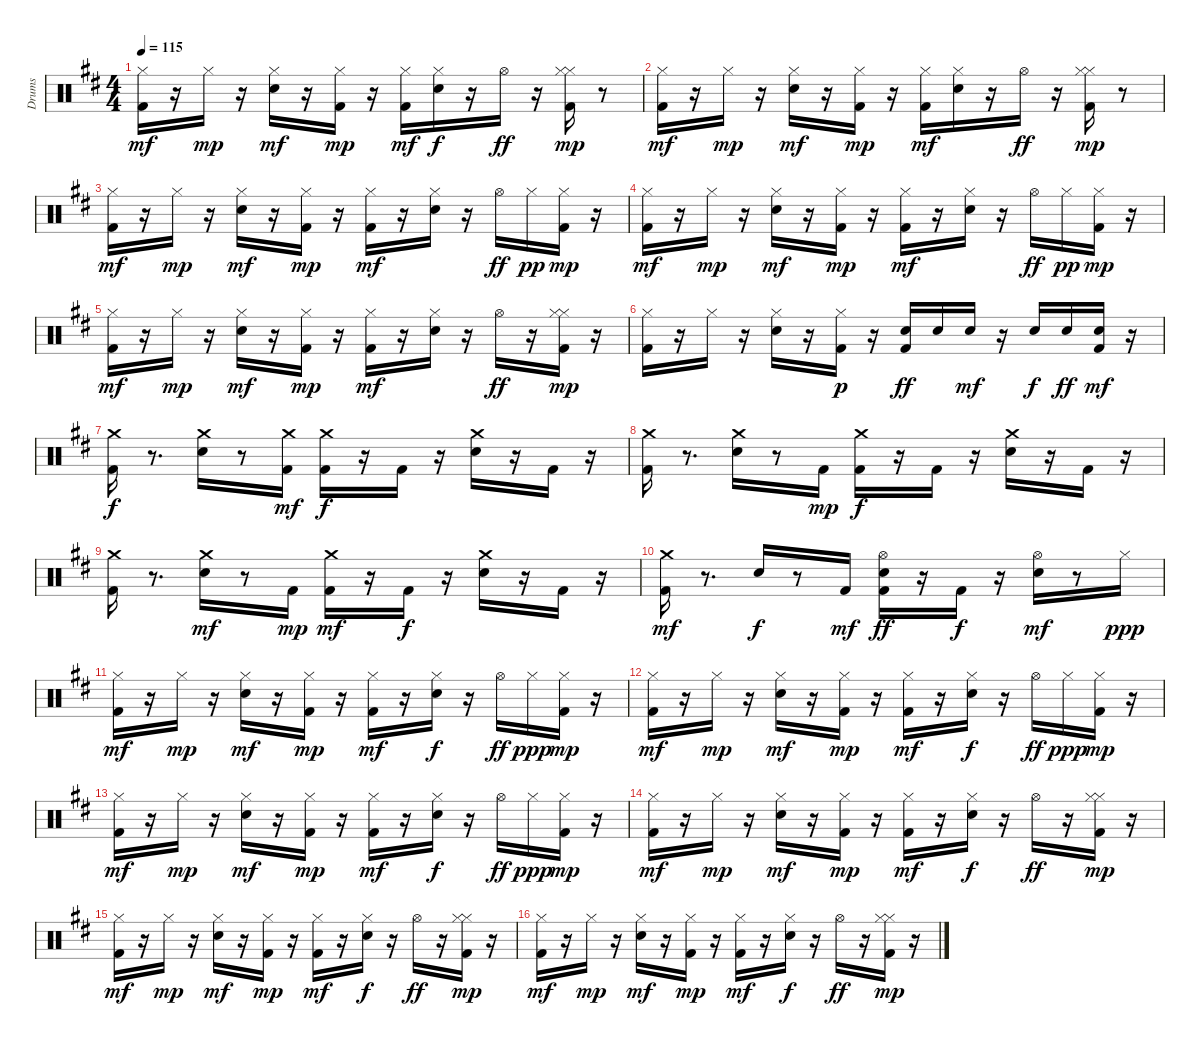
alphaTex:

\track ("Drums" "Drums") {instrument percussion}
\staff {score}
\articulation defaults
\ts (4 4)
\tempo 115
\clef neutral
\ks d
("Kick (hit) 2" "Hi-Hat (closed)").16{dy mf} r.16 "Hi-Hat (closed)".16{dy mp} r.16 ("Hi-Hat (closed)" "Snare (hit) 2").16{dy mf} r.16 ("Kick (hit) 2" "Hi-Hat (closed)").16{dy mp} r.16 ("Kick (hit) 2" "Hi-Hat (closed)").16{dy mf} ("Hi-Hat (closed)" "Snare (hit) 2").16{dy f} r.16 "Hi-Hat (open)".16{dy ff} r.16 ("Hi-Hat (closed)" "Kick (hit) 2" "Hi-Hat (closed)").16{dy mp} r.8 |
("Kick (hit) 2" "Hi-Hat (closed)").16{dy mf} r.16 "Hi-Hat (closed)".16{dy mp} r.16 ("Hi-Hat (closed)" "Snare (hit) 2").16{dy mf} r.16 ("Kick (hit) 2" "Hi-Hat (closed)").16{dy mp} r.16 ("Kick (hit) 2" "Hi-Hat (closed)").16{dy mf} ("Hi-Hat (closed)" "Snare (hit) 2").16 r.16 "Hi-Hat (open)".16{dy ff} r.16 ("Hi-Hat (closed)" "Kick (hit) 2" "Hi-Hat (closed)").16{dy mp} r.8 |
("Kick (hit) 2" "Hi-Hat (closed)").16{dy mf} r.16 "Hi-Hat (closed)".16{dy mp} r.16 ("Hi-Hat (closed)" "Snare (hit) 2").16{dy mf} r.16 ("Kick (hit) 2" "Hi-Hat (closed)").16{dy mp} r.16 ("Kick (hit) 2" "Hi-Hat (closed)").16{dy mf} r.16 ("Hi-Hat (closed)" "Snare (hit) 2").16 r.16 "Hi-Hat (open)".16{dy ff} "Hi-Hat (closed)".16{dy pp} ("Kick (hit) 2" "Hi-Hat (closed)").16{dy mp} r.16 |
("Kick (hit) 2" "Hi-Hat (closed)").16{dy mf} r.16 "Hi-Hat (closed)".16{dy mp} r.16 ("Hi-Hat (closed)" "Snare (hit) 2").16{dy mf} r.16 ("Kick (hit) 2" "Hi-Hat (closed)").16{dy mp} r.16 ("Kick (hit) 2" "Hi-Hat (closed)").16{dy mf} r.16 ("Hi-Hat (closed)" "Snare (hit) 2").16 r.16 "Hi-Hat (open)".16{dy ff} "Hi-Hat (closed)".16{dy pp} ("Kick (hit) 2" "Hi-Hat (closed)").16{dy mp} r.16 |
("Kick (hit) 2" "Hi-Hat (closed)").16{dy mf} r.16 "Hi-Hat (closed)".16{dy mp} r.16 ("Hi-Hat (closed)" "Snare (hit) 2").16{dy mf} r.16 ("Kick (hit) 2" "Hi-Hat (closed)").16{dy mp} r.16 ("Kick (hit) 2" "Hi-Hat (closed)").16{dy mf} r.16 ("Hi-Hat (closed)" "Snare (hit) 2").16 r.16 "Hi-Hat (open)".16{dy ff} r.16 ("Hi-Hat (closed)" "Kick (hit) 2" "Hi-Hat (closed)").16{dy mp} r.16 |
("Kick (hit) 2" "Hi-Hat (closed)").16 r.16 "Hi-Hat (closed)".16 r.16 ("Hi-Hat (closed)" "Snare (hit) 2").16 r.16 ("Kick (hit) 2" "Hi-Hat (closed)").16{dy p} r.16 ("Kick (hit) 2" "Snare (hit) 2").16{dy ff} "Snare (hit) 2".16 "Snare (hit) 2".16{dy mf} r.16 "Snare (hit) 2".16{dy f} "Snare (hit) 2".16{dy ff} ("Kick (hit) 2" "Snare (hit) 2").16{dy mf} r.16 |
("Kick (hit) 2" "Crash medium (hit)").16{dy f} r.8{d} ("Crash medium (hit)" "Snare (hit) 2").16 r.8 ("Kick (hit) 2" "Crash medium (hit)").16{dy mf} ("Kick (hit) 2" "Crash medium (hit)").16{dy f} r.16 "Kick (hit) 2".16 r.16 ("Crash medium (hit)" "Snare (hit) 2").16 r.16 "Kick (hit) 2".16 r.16 |
("Kick (hit) 2" "Crash medium (hit)").16 r.8{d} ("Crash medium (hit)" "Snare (hit) 2").16 r.8 "Kick (hit) 2".16{dy mp} ("Kick (hit) 2" "Crash medium (hit)").16{dy f} r.16 "Kick (hit) 2".16 r.16 ("Crash medium (hit)" "Snare (hit) 2").16 r.16 "Kick (hit) 2".16 r.16 |
("Kick (hit) 2" "Crash medium (hit)").16 r.8{d} ("Crash medium (hit)" "Snare (hit) 2").16{dy mf} r.8 "Kick (hit) 2".16{dy mp} ("Kick (hit) 2" "Crash medium (hit)").16{dy mf} r.16 "Kick (hit) 2".16{dy f} r.16 ("Crash medium (hit)" "Snare (hit) 2").16 r.16 "Kick (hit) 2".16 r.16 |
("Kick (hit) 2" "Crash medium (hit)").16{dy mf} r.8{d} "Snare (hit) 2".16{dy f} r.8 "Kick (hit) 2".16{dy mf} ("Kick (hit) 2" "Snare (hit) 2" "Hi-Hat (open)").16{dy ff} r.16 "Kick (hit) 2".16{dy f} r.16 ("Snare (hit) 2" "Hi-Hat (open)").16{dy mf} r.8 "Hi-Hat (closed)".16{dy ppp} |
("Kick (hit) 2" "Hi-Hat (closed)").16{dy mf} r.16 "Hi-Hat (closed)".16{dy mp} r.16 ("Hi-Hat (closed)" "Snare (hit) 2").16{dy mf} r.16 ("Kick (hit) 2" "Hi-Hat (closed)").16{dy mp} r.16 ("Kick (hit) 2" "Hi-Hat (closed)").16{dy mf} r.16 ("Snare (hit) 2" "Hi-Hat (closed)").16{dy f} r.16 "Hi-Hat (open)".16{dy ff} "Hi-Hat (closed)".16{dy ppp} ("Kick (hit) 2" "Hi-Hat (closed)").16{dy mp} r.16 |
("Kick (hit) 2" "Hi-Hat (closed)").16{dy mf} r.16 "Hi-Hat (closed)".16{dy mp} r.16 ("Hi-Hat (closed)" "Snare (hit) 2").16{dy mf} r.16 ("Kick (hit) 2" "Hi-Hat (closed)").16{dy mp} r.16 ("Kick (hit) 2" "Hi-Hat (closed)").16{dy mf} r.16 ("Hi-Hat (closed)" "Snare (hit) 2").16{dy f} r.16 "Hi-Hat (open)".16{dy ff} "Hi-Hat (closed)".16{dy ppp} ("Kick (hit) 2" "Hi-Hat (closed)").16{dy mp} r.16 |
("Kick (hit) 2" "Hi-Hat (closed)").16{dy mf} r.16 "Hi-Hat (closed)".16{dy mp} r.16 ("Hi-Hat (closed)" "Snare (hit) 2").16{dy mf} r.16 ("Kick (hit) 2" "Hi-Hat (closed)").16{dy mp} r.16 ("Kick (hit) 2" "Hi-Hat (closed)").16{dy mf} r.16 ("Hi-Hat (closed)" "Snare (hit) 2").16{dy f} r.16 "Hi-Hat (open)".16{dy ff} "Hi-Hat (closed)".16{dy ppp} ("Kick (hit) 2" "Hi-Hat (closed)").16{dy mp} r.16 |
("Kick (hit) 2" "Hi-Hat (closed)").16{dy mf} r.16 "Hi-Hat (closed)".16{dy mp} r.16 ("Hi-Hat (closed)" "Snare (hit) 2").16{dy mf} r.16 ("Kick (hit) 2" "Hi-Hat (closed)").16{dy mp} r.16 ("Kick (hit) 2" "Hi-Hat (closed)").16{dy mf} r.16 ("Hi-Hat (closed)" "Snare (hit) 2").16{dy f} r.16 "Hi-Hat (open)".16{dy ff} r.16 ("Hi-Hat (closed)" "Kick (hit) 2" "Hi-Hat (closed)").16{dy mp} r.16 |
("Kick (hit) 2" "Hi-Hat (closed)").16{dy mf} r.16 "Hi-Hat (closed)".16{dy mp} r.16 ("Hi-Hat (closed)" "Snare (hit) 2").16{dy mf} r.16 ("Kick (hit) 2" "Hi-Hat (closed)").16{dy mp} r.16 ("Kick (hit) 2" "Hi-Hat (closed)").16{dy mf} r.16 ("Hi-Hat (closed)" "Snare (hit) 2").16{dy f} r.16 "Hi-Hat (open)".16{dy ff} r.16 ("Hi-Hat (closed)" "Kick (hit) 2" "Hi-Hat (closed)").16{dy mp} r.16 |
("Kick (hit) 2" "Hi-Hat (closed)").16{dy mf} r.16 "Hi-Hat (closed)".16{dy mp} r.16 ("Hi-Hat (closed)" "Snare (hit) 2").16{dy mf} r.16 ("Kick (hit) 2" "Hi-Hat (closed)").16{dy mp} r.16 ("Kick (hit) 2" "Hi-Hat (closed)").16{dy mf} r.16 ("Hi-Hat (closed)" "Snare (hit) 2").16{dy f} r.16 "Hi-Hat (open)".16{dy ff} r.16 ("Hi-Hat (closed)" "Kick (hit) 2" "Hi-Hat (closed)").16{dy mp} r.16
